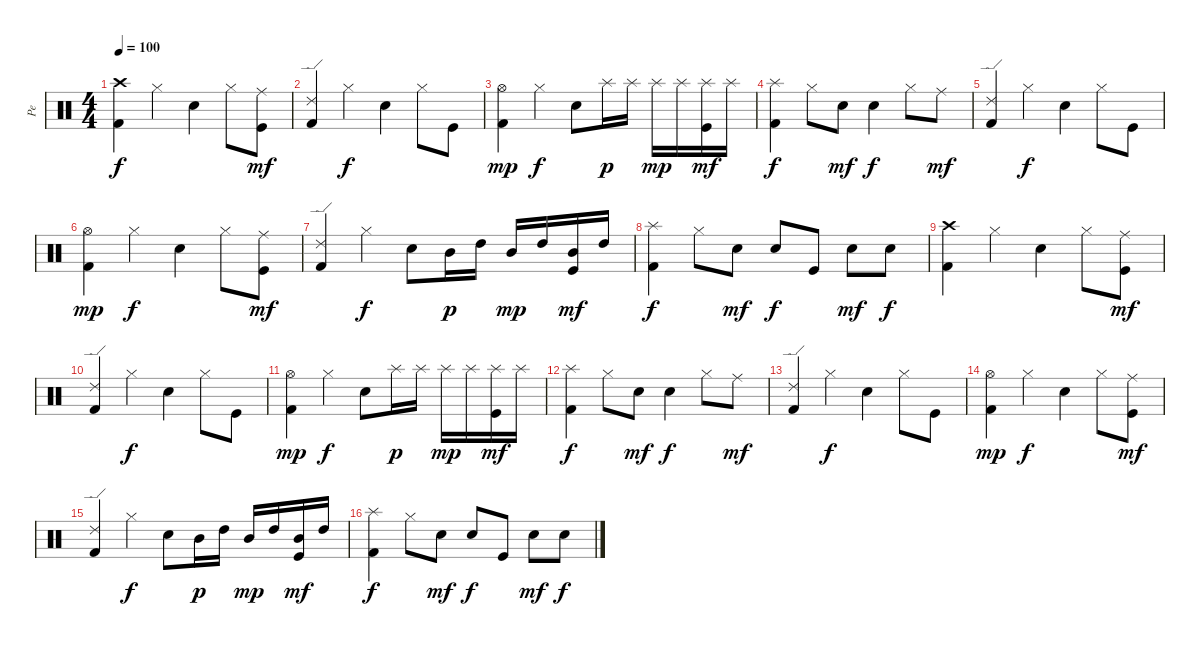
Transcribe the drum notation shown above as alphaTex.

\track ("Pe" "Pe") {instrument percussion}
\staff {score}
\articulation defaults
\ts (4 4)
\tempo 100
\clef neutral
\ks c
("Kick (hit) 2" "Crash high (hit)").4{dy f} "Hi-Hat (closed)".4 "Electric Snare (hit)".4 "Hi-Hat (closed)".8 ("Kick (hit)" "Ride (middle)").8{dy mf} |
("Kick (hit) 2" "Ride (edge) 2").4 "Hi-Hat (closed)".4{dy f} "Electric Snare (hit)".4 "Hi-Hat (closed)".8 "Kick (hit)".8 |
("Kick (hit) 2" "Hi-Hat (open)").4{dy mp} "Hi-Hat (closed)".4{dy f} "Electric Snare (hit)".8 "Splash (hit)".16{dy p} "Splash (hit)".16 "Splash (hit)".16{dy mp} "Splash (hit)".16 ("Kick (hit)" "Splash (hit)").16{dy mf} "Splash (hit)".16 |
("Kick (hit) 2" "Splash (hit)").4{dy f} "Hi-Hat (closed)".8 "Electric Snare (hit)".8{dy mf} "Electric Snare (hit)".4{dy f} "Hi-Hat (closed)".8 "Ride (middle)".8{dy mf} |
("Kick (hit) 2" "Ride (edge) 2").4 "Hi-Hat (closed)".4{dy f} "Electric Snare (hit)".4 "Hi-Hat (closed)".8 "Kick (hit)".8 |
("Kick (hit) 2" "Hi-Hat (open)").4{dy mp} "Hi-Hat (closed)".4{dy f} "Electric Snare (hit)".4 "Hi-Hat (closed)".8 ("Kick (hit)" "Ride (middle)").8{dy mf} |
("Kick (hit) 2" "Ride (edge) 2").4 "Hi-Hat (closed)".4{dy f} "Electric Snare (hit)".8 "Mid Tom (hit)".16{dy p} "High Tom (hit)".16 "Mid Tom (hit)".16{dy mp} "High Tom (hit)".16 ("Kick (hit)" "Mid Tom (hit)").16{dy mf} "High Tom (hit)".16 |
("Kick (hit) 2" "Splash (hit)").4{dy f} "Hi-Hat (closed)".8 "Electric Snare (hit)".8{dy mf} "Electric Snare (hit)".8{dy f} "Kick (hit)".8 "Electric Snare (hit)".8{dy mf} "Electric Snare (hit)".8{dy f} |
("Kick (hit) 2" "Crash high (hit)").4 "Hi-Hat (closed)".4 "Electric Snare (hit)".4 "Hi-Hat (closed)".8 ("Kick (hit)" "Ride (middle)").8{dy mf} |
("Kick (hit) 2" "Ride (edge) 2").4 "Hi-Hat (closed)".4{dy f} "Electric Snare (hit)".4 "Hi-Hat (closed)".8 "Kick (hit)".8 |
("Kick (hit) 2" "Hi-Hat (open)").4{dy mp} "Hi-Hat (closed)".4{dy f} "Electric Snare (hit)".8 "Splash (hit)".16{dy p} "Splash (hit)".16 "Splash (hit)".16{dy mp} "Splash (hit)".16 ("Kick (hit)" "Splash (hit)").16{dy mf} "Splash (hit)".16 |
("Kick (hit) 2" "Splash (hit)").4{dy f} "Hi-Hat (closed)".8 "Electric Snare (hit)".8{dy mf} "Electric Snare (hit)".4{dy f} "Hi-Hat (closed)".8 "Ride (middle)".8{dy mf} |
("Kick (hit) 2" "Ride (edge) 2").4 "Hi-Hat (closed)".4{dy f} "Electric Snare (hit)".4 "Hi-Hat (closed)".8 "Kick (hit)".8 |
("Kick (hit) 2" "Hi-Hat (open)").4{dy mp} "Hi-Hat (closed)".4{dy f} "Electric Snare (hit)".4 "Hi-Hat (closed)".8 ("Kick (hit)" "Ride (middle)").8{dy mf} |
("Kick (hit) 2" "Ride (edge) 2").4 "Hi-Hat (closed)".4{dy f} "Electric Snare (hit)".8 "Mid Tom (hit)".16{dy p} "High Tom (hit)".16 "Mid Tom (hit)".16{dy mp} "High Tom (hit)".16 ("Kick (hit)" "Mid Tom (hit)").16{dy mf} "High Tom (hit)".16 |
("Kick (hit) 2" "Splash (hit)").4{dy f} "Hi-Hat (closed)".8 "Electric Snare (hit)".8{dy mf} "Electric Snare (hit)".8{dy f} "Kick (hit)".8 "Electric Snare (hit)".8{dy mf} "Electric Snare (hit)".8{dy f}
